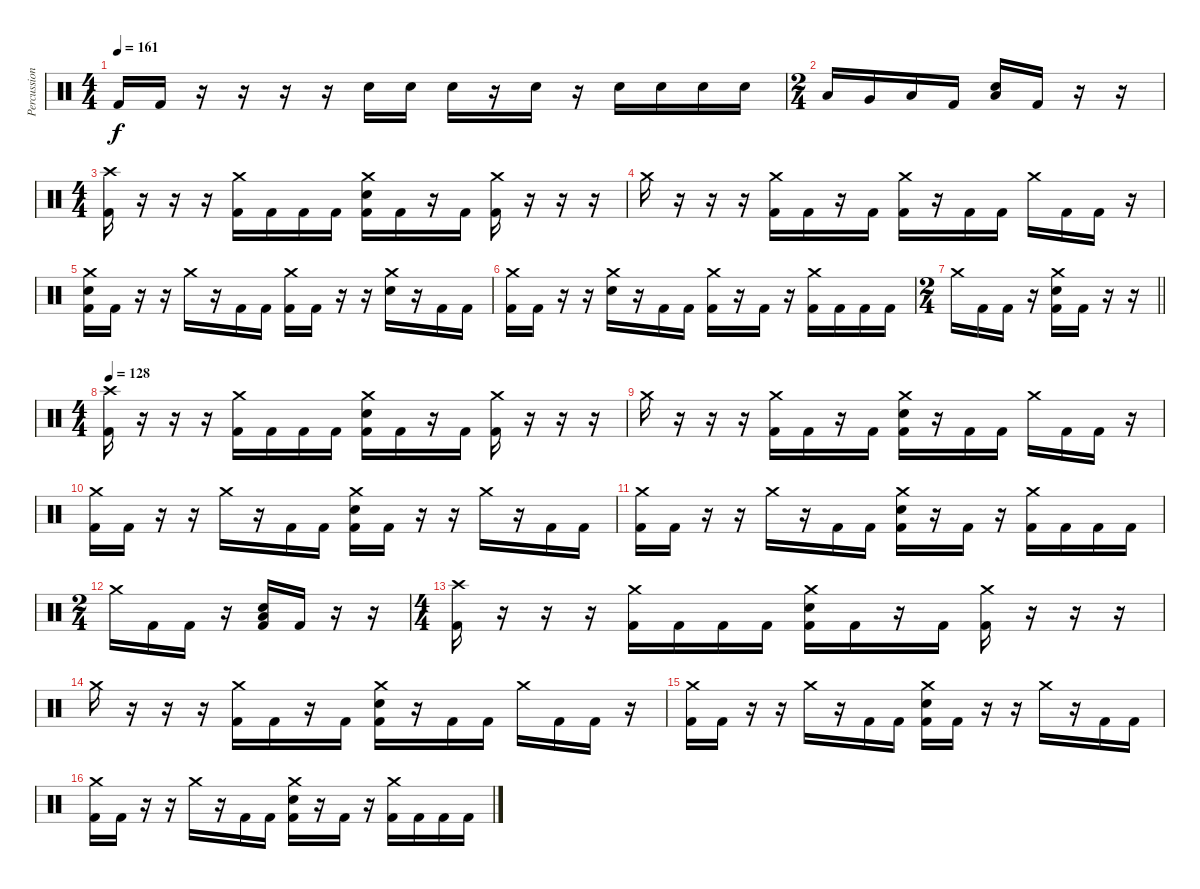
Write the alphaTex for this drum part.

\track ("Percussion" "Percussion") {instrument percussion}
\staff {score}
\articulation defaults
\ts (4 4)
\tempo 161
\clef neutral
\ks c "Kick (hit) 2".16{dy f} "Kick (hit) 2".16
r.16 r.16 r.16 r.16 "Electric Snare (hit)".16 "Electric Snare (hit)".16 "Electric Snare (hit)".16 r.16 "Electric Snare (hit)".16 r.16 "Electric Snare (hit)".16 "Electric Snare (hit)".16 "Electric Snare (hit)".16 "Electric Snare (hit)".16 |
\ts (2 4)
"Low Tom (hit)".16 "Very Low Tom (hit)".16 "Low Floor Tom (hit)".16 "Kick (hit) 2".16 ("Electric Snare (hit)" "Low Floor Tom (hit)").16 "Kick (hit) 2".16 r.16 r.16 |
\ts (4 4)
("Crash high (hit)" "Kick (hit) 2").16 r.16 r.16 r.16 ("Crash medium (hit)" "Kick (hit) 2").16 "Kick (hit) 2".16 "Kick (hit) 2".16 "Kick (hit) 2".16 ("Crash medium (hit)" "Electric Snare (hit)" "Kick (hit) 2").16 "Kick (hit) 2".16 r.16 "Kick (hit) 2".16 ("Crash medium (hit)" "Kick (hit) 2").16 r.16 r.16 r.16 |
"Crash medium (hit)".16 r.16 r.16 r.16 ("Crash medium (hit)" "Kick (hit) 2").16 "Kick (hit) 2".16 r.16 "Kick (hit) 2".16 ("Crash medium (hit)" "Kick (hit) 2").16 r.16 "Kick (hit) 2".16 "Kick (hit) 2".16 "Crash medium (hit)".16 "Kick (hit) 2".16 "Kick (hit) 2".16 r.16 |
("Crash medium (hit)" "Electric Snare (hit)" "Kick (hit) 2").16 "Kick (hit) 2".16 r.16 r.16 "Crash medium (hit)".16 r.16 "Kick (hit) 2".16 "Kick (hit) 2".16 ("Crash medium (hit)" "Kick (hit) 2").16 "Kick (hit) 2".16 r.16 r.16 ("Crash medium (hit)" "Electric Snare (hit)").16 r.16 "Kick (hit) 2".16 "Kick (hit) 2".16 |
("Crash medium (hit)" "Kick (hit) 2").16 "Kick (hit) 2".16 r.16 r.16 ("Crash medium (hit)" "Electric Snare (hit)").16 r.16 "Kick (hit) 2".16 "Kick (hit) 2".16 ("Crash medium (hit)" "Kick (hit) 2").16 r.16 "Kick (hit) 2".16 r.16 ("Crash medium (hit)" "Kick (hit) 2").16 "Kick (hit) 2".16 "Kick (hit) 2".16 "Kick (hit) 2".16 |
\ts (2 4)
\barLineRight lightlight "Crash medium (hit)".16 "Kick (hit) 2".16 "Kick (hit) 2".16
r.16 ("Crash medium (hit)" "Electric Snare (hit)" "Kick (hit) 2").16 "Kick (hit) 2".16 r.16 r.16 |
\ts (4 4)
\section ("" "")
\tempo 128
("Crash high (hit)" "Kick (hit) 2").16 r.16 r.16 r.16 ("Crash medium (hit)" "Kick (hit) 2").16 "Kick (hit) 2".16 "Kick (hit) 2".16 "Kick (hit) 2".16 ("Crash medium (hit)" "Electric Snare (hit)" "Kick (hit) 2").16 "Kick (hit) 2".16 r.16 "Kick (hit) 2".16 ("Crash medium (hit)" "Kick (hit) 2").16 r.16 r.16 r.16 |
"Crash medium (hit)".16 r.16 r.16 r.16 ("Crash medium (hit)" "Kick (hit) 2").16 "Kick (hit) 2".16 r.16 "Kick (hit) 2".16 ("Crash medium (hit)" "Electric Snare (hit)" "Kick (hit) 2").16 r.16 "Kick (hit) 2".16 "Kick (hit) 2".16 "Crash medium (hit)".16 "Kick (hit) 2".16 "Kick (hit) 2".16 r.16 |
("Crash medium (hit)" "Kick (hit) 2").16 "Kick (hit) 2".16 r.16 r.16 "Crash medium (hit)".16 r.16 "Kick (hit) 2".16 "Kick (hit) 2".16 ("Crash medium (hit)" "Electric Snare (hit)" "Kick (hit) 2").16 "Kick (hit) 2".16 r.16 r.16 "Crash medium (hit)".16 r.16 "Kick (hit) 2".16 "Kick (hit) 2".16 |
("Crash medium (hit)" "Kick (hit) 2").16 "Kick (hit) 2".16 r.16 r.16 "Crash medium (hit)".16 r.16 "Kick (hit) 2".16 "Kick (hit) 2".16 ("Crash medium (hit)" "Electric Snare (hit)" "Kick (hit) 2").16 r.16 "Kick (hit) 2".16 r.16 ("Crash medium (hit)" "Kick (hit) 2").16 "Kick (hit) 2".16 "Kick (hit) 2".16 "Kick (hit) 2".16 |
\ts (2 4)
"Crash medium (hit)".16 "Kick (hit) 2".16 "Kick (hit) 2".16 r.16 ("Electric Snare (hit)" "Low Floor Tom (hit)" "Kick (hit) 2").16 "Kick (hit) 2".16 r.16 r.16 |
\ts (4 4)
("Crash high (hit)" "Kick (hit) 2").16 r.16 r.16 r.16 ("Crash medium (hit)" "Kick (hit) 2").16 "Kick (hit) 2".16 "Kick (hit) 2".16 "Kick (hit) 2".16 ("Crash medium (hit)" "Electric Snare (hit)" "Kick (hit) 2").16 "Kick (hit) 2".16 r.16 "Kick (hit) 2".16 ("Crash medium (hit)" "Kick (hit) 2").16 r.16 r.16 r.16 |
"Crash medium (hit)".16 r.16 r.16 r.16 ("Crash medium (hit)" "Kick (hit) 2").16 "Kick (hit) 2".16 r.16 "Kick (hit) 2".16 ("Crash medium (hit)" "Electric Snare (hit)" "Kick (hit) 2").16 r.16 "Kick (hit) 2".16 "Kick (hit) 2".16 "Crash medium (hit)".16 "Kick (hit) 2".16 "Kick (hit) 2".16 r.16 |
("Crash medium (hit)" "Kick (hit) 2").16 "Kick (hit) 2".16 r.16 r.16 "Crash medium (hit)".16 r.16 "Kick (hit) 2".16 "Kick (hit) 2".16 ("Crash medium (hit)" "Electric Snare (hit)" "Kick (hit) 2").16 "Kick (hit) 2".16 r.16 r.16 "Crash medium (hit)".16 r.16 "Kick (hit) 2".16 "Kick (hit) 2".16 |
("Crash medium (hit)" "Kick (hit) 2").16 "Kick (hit) 2".16 r.16 r.16 "Crash medium (hit)".16 r.16 "Kick (hit) 2".16 "Kick (hit) 2".16 ("Crash medium (hit)" "Electric Snare (hit)" "Kick (hit) 2").16 r.16 "Kick (hit) 2".16 r.16 ("Crash medium (hit)" "Kick (hit) 2").16 "Kick (hit) 2".16 "Kick (hit) 2".16 "Kick (hit) 2".16
